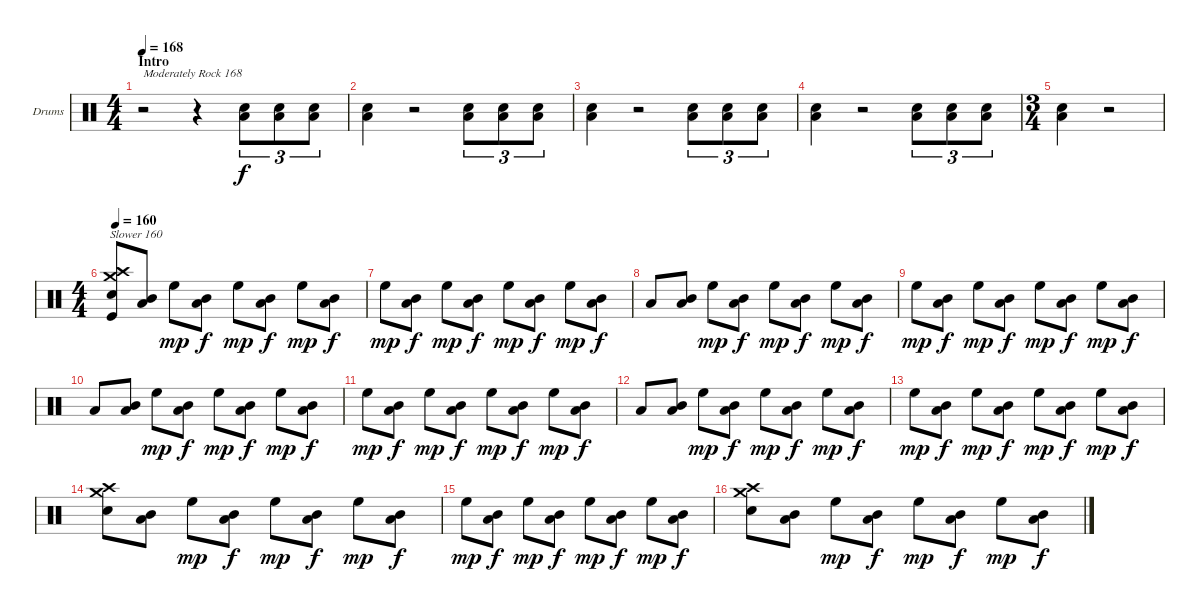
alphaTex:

\bracketExtendMode groupsimilarinstruments
\firstSystemTrackNameOrientation horizontal
\otherSystemsTrackNameOrientation horizontal
\track ("Drumkit" "Drums") {instrument percussion}
\staff {score}
\articulation defaults
\ts (4 4)
\beaming (8 2 2 2 2)
\section ("" "Intro")
\tempo 168
\clef neutral
\ks c
r.2{txt "Moderately Rock 168" dy f} r.4 ("Snare (hit) 2" "Low Tom (hit)").8{tu (3 2)} ("Snare (hit) 2" "Low Tom (hit)").8{tu (3 2)} ("Snare (hit) 2" "Low Tom (hit)").8{tu (3 2)} |
("Snare (hit) 2" "Low Tom (hit)").4 r.2 ("Snare (hit) 2" "Low Tom (hit)").8{tu (3 2)} ("Snare (hit) 2" "Low Tom (hit)").8{tu (3 2)} ("Snare (hit) 2" "Low Tom (hit)").8{tu (3 2)} |
("Snare (hit) 2" "Low Tom (hit)").4 r.2 ("Snare (hit) 2" "Low Tom (hit)").8{tu (3 2)} ("Snare (hit) 2" "Low Tom (hit)").8{tu (3 2)} ("Snare (hit) 2" "Low Tom (hit)").8{tu (3 2)} |
("Snare (hit) 2" "Low Tom (hit)").4 r.2 ("Snare (hit) 2" "Low Tom (hit)").8{tu (3 2)} ("Snare (hit) 2" "Low Tom (hit)").8{tu (3 2)} ("Snare (hit) 2" "Low Tom (hit)").8{tu (3 2)} |
\ts (3 4)
\beaming (8 2 2 2)
("Snare (hit) 2" "Low Tom (hit)").4 r.2 |
\ts (4 4)
\beaming (8 2 2 2 2)
\tempo 160
("Crash medium (hit)" "Crash high (hit)" "Snare (hit) 2" "Kick (hit)").8{txt "Slower 160"} ("Mid Tom (hit)" "Low Tom (hit)").8 "High Floor Tom (hit)".8{dy mp} ("Mid Tom (hit)" "Low Tom (hit)").8{dy f} "High Floor Tom (hit)".8{dy mp} ("Mid Tom (hit)" "Low Tom (hit)").8{dy f} "High Floor Tom (hit)".8{dy mp} ("Mid Tom (hit)" "Low Tom (hit)").8{dy f} |
"High Floor Tom (hit)".8{dy mp} ("Mid Tom (hit)" "Low Tom (hit)").8{dy f} "High Floor Tom (hit)".8{dy mp} ("Mid Tom (hit)" "Low Tom (hit)").8{dy f} "High Floor Tom (hit)".8{dy mp} ("Mid Tom (hit)" "Low Tom (hit)").8{dy f} "High Floor Tom (hit)".8{dy mp} ("Mid Tom (hit)" "Low Tom (hit)").8{dy f} |
"Low Tom (hit)".8 ("Mid Tom (hit)" "Low Tom (hit)").8 "High Floor Tom (hit)".8{dy mp} ("Mid Tom (hit)" "Low Tom (hit)").8{dy f} "High Floor Tom (hit)".8{dy mp} ("Mid Tom (hit)" "Low Tom (hit)").8{dy f} "High Floor Tom (hit)".8{dy mp} ("Mid Tom (hit)" "Low Tom (hit)").8{dy f} |
"High Floor Tom (hit)".8{dy mp} ("Mid Tom (hit)" "Low Tom (hit)").8{dy f} "High Floor Tom (hit)".8{dy mp} ("Mid Tom (hit)" "Low Tom (hit)").8{dy f} "High Floor Tom (hit)".8{dy mp} ("Mid Tom (hit)" "Low Tom (hit)").8{dy f} "High Floor Tom (hit)".8{dy mp} ("Mid Tom (hit)" "Low Tom (hit)").8{dy f} |
"Low Tom (hit)".8 ("Mid Tom (hit)" "Low Tom (hit)").8 "High Floor Tom (hit)".8{dy mp} ("Mid Tom (hit)" "Low Tom (hit)").8{dy f} "High Floor Tom (hit)".8{dy mp} ("Mid Tom (hit)" "Low Tom (hit)").8{dy f} "High Floor Tom (hit)".8{dy mp} ("Mid Tom (hit)" "Low Tom (hit)").8{dy f} |
"High Floor Tom (hit)".8{dy mp} ("Mid Tom (hit)" "Low Tom (hit)").8{dy f} "High Floor Tom (hit)".8{dy mp} ("Mid Tom (hit)" "Low Tom (hit)").8{dy f} "High Floor Tom (hit)".8{dy mp} ("Mid Tom (hit)" "Low Tom (hit)").8{dy f} "High Floor Tom (hit)".8{dy mp} ("Mid Tom (hit)" "Low Tom (hit)").8{dy f} |
"Low Tom (hit)".8 ("Mid Tom (hit)" "Low Tom (hit)").8 "High Floor Tom (hit)".8{dy mp} ("Mid Tom (hit)" "Low Tom (hit)").8{dy f} "High Floor Tom (hit)".8{dy mp} ("Mid Tom (hit)" "Low Tom (hit)").8{dy f} "High Floor Tom (hit)".8{dy mp} ("Mid Tom (hit)" "Low Tom (hit)").8{dy f} |
"High Floor Tom (hit)".8{dy mp} ("Mid Tom (hit)" "Low Tom (hit)").8{dy f} "High Floor Tom (hit)".8{dy mp} ("Mid Tom (hit)" "Low Tom (hit)").8{dy f} "High Floor Tom (hit)".8{dy mp} ("Mid Tom (hit)" "Low Tom (hit)").8{dy f} "High Floor Tom (hit)".8{dy mp} ("Mid Tom (hit)" "Low Tom (hit)").8{dy f} |
("Crash medium (hit)" "Crash high (hit)" "Snare (hit) 2").8 ("Mid Tom (hit)" "Low Tom (hit)").8 "High Floor Tom (hit)".8{dy mp} ("Mid Tom (hit)" "Low Tom (hit)").8{dy f} "High Floor Tom (hit)".8{dy mp} ("Mid Tom (hit)" "Low Tom (hit)").8{dy f} "High Floor Tom (hit)".8{dy mp} ("Mid Tom (hit)" "Low Tom (hit)").8{dy f} |
"High Floor Tom (hit)".8{dy mp} ("Mid Tom (hit)" "Low Tom (hit)").8{dy f} "High Floor Tom (hit)".8{dy mp} ("Mid Tom (hit)" "Low Tom (hit)").8{dy f} "High Floor Tom (hit)".8{dy mp} ("Mid Tom (hit)" "Low Tom (hit)").8{dy f} "High Floor Tom (hit)".8{dy mp} ("Mid Tom (hit)" "Low Tom (hit)").8{dy f} |
("Crash medium (hit)" "Crash high (hit)" "Snare (hit) 2").8 ("Mid Tom (hit)" "Low Tom (hit)").8 "High Floor Tom (hit)".8{dy mp} ("Mid Tom (hit)" "Low Tom (hit)").8{dy f} "High Floor Tom (hit)".8{dy mp} ("Mid Tom (hit)" "Low Tom (hit)").8{dy f} "High Floor Tom (hit)".8{dy mp} ("Mid Tom (hit)" "Low Tom (hit)").8{dy f}
